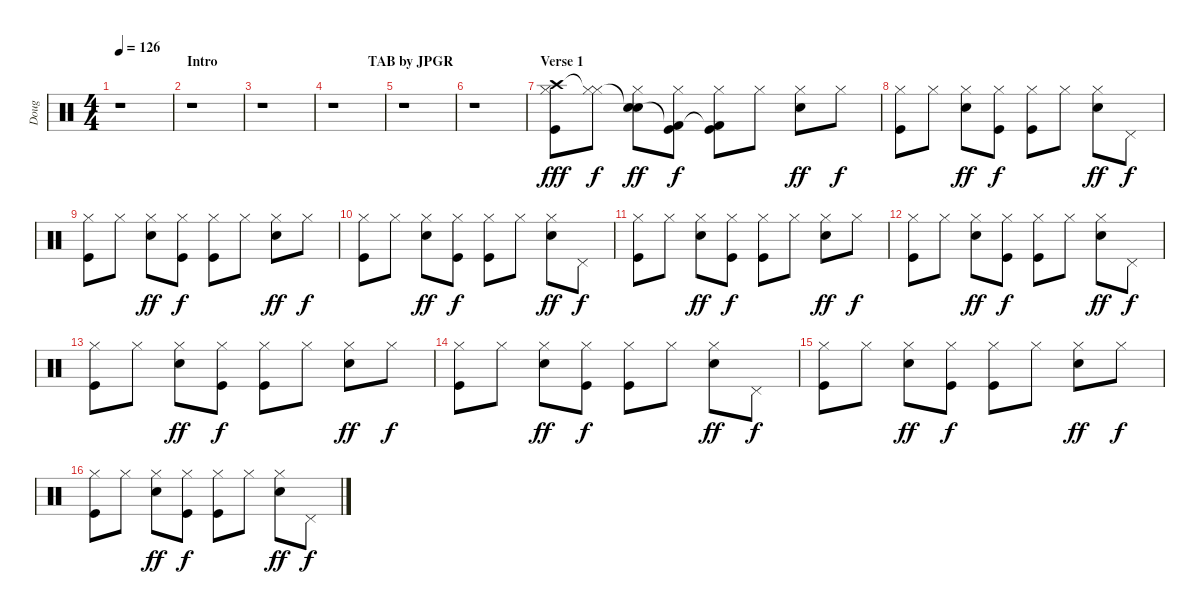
\track ("Doug" "Doug") {instrument percussion}
\staff {score}
\articulation defaults
\ts (4 4)
\tempo 126
\clef neutral
\ks c
r.1{dy fff} |
\section ("" "Intro                                           TAB by JPGR")
r.1 |
r.1 |
r.1 |
r.1 |
r.1 |
\section ("" "Verse 1")
("Crash high (hit)" "Hi-Hat (closed)" "Kick (hit)").8 ("Hi-Hat (closed)"{t} "Hi-Hat (closed)").8{dy f} ("Snare (hit) 2"{t} "Hi-Hat (closed)" "Snare (hit) 2").8{dy ff} ("Kick (hit) 2"{t} "Hi-Hat (closed)" "Kick (hit)").8{dy f} ("Kick (hit) 2"{t} "Hi-Hat (closed)" "Kick (hit)").8 "Hi-Hat (closed)".8 ("Hi-Hat (closed)" "Snare (hit) 2").8{dy ff} "Hi-Hat (closed)".8{dy f} |
("Hi-Hat (closed)" "Kick (hit)").8 "Hi-Hat (closed)".8 ("Hi-Hat (closed)" "Snare (hit) 2").8{dy ff} ("Hi-Hat (closed)" "Kick (hit)").8{dy f} ("Hi-Hat (closed)" "Kick (hit)").8 "Hi-Hat (closed)".8 ("Hi-Hat (closed)" "Snare (hit) 2").8{dy ff} "Pedal Hi-Hat (hit)".8{dy f} |
("Hi-Hat (closed)" "Kick (hit)").8 "Hi-Hat (closed)".8 ("Hi-Hat (closed)" "Snare (hit) 2").8{dy ff} ("Hi-Hat (closed)" "Kick (hit)").8{dy f} ("Hi-Hat (closed)" "Kick (hit)").8 "Hi-Hat (closed)".8 ("Hi-Hat (closed)" "Snare (hit) 2").8{dy ff} "Hi-Hat (closed)".8{dy f} |
("Hi-Hat (closed)" "Kick (hit)").8 "Hi-Hat (closed)".8 ("Hi-Hat (closed)" "Snare (hit) 2").8{dy ff} ("Hi-Hat (closed)" "Kick (hit)").8{dy f} ("Hi-Hat (closed)" "Kick (hit)").8 "Hi-Hat (closed)".8 ("Hi-Hat (closed)" "Snare (hit) 2").8{dy ff} "Pedal Hi-Hat (hit)".8{dy f} |
("Hi-Hat (closed)" "Kick (hit)").8 "Hi-Hat (closed)".8 ("Hi-Hat (closed)" "Snare (hit) 2").8{dy ff} ("Hi-Hat (closed)" "Kick (hit)").8{dy f} ("Hi-Hat (closed)" "Kick (hit)").8 "Hi-Hat (closed)".8 ("Hi-Hat (closed)" "Snare (hit) 2").8{dy ff} "Hi-Hat (closed)".8{dy f} |
("Hi-Hat (closed)" "Kick (hit)").8 "Hi-Hat (closed)".8 ("Hi-Hat (closed)" "Snare (hit) 2").8{dy ff} ("Hi-Hat (closed)" "Kick (hit)").8{dy f} ("Hi-Hat (closed)" "Kick (hit)").8 "Hi-Hat (closed)".8 ("Hi-Hat (closed)" "Snare (hit) 2").8{dy ff} "Pedal Hi-Hat (hit)".8{dy f} |
("Hi-Hat (closed)" "Kick (hit)").8 "Hi-Hat (closed)".8 ("Hi-Hat (closed)" "Snare (hit) 2").8{dy ff} ("Hi-Hat (closed)" "Kick (hit)").8{dy f} ("Hi-Hat (closed)" "Kick (hit)").8 "Hi-Hat (closed)".8 ("Hi-Hat (closed)" "Snare (hit) 2").8{dy ff} "Hi-Hat (closed)".8{dy f} |
("Hi-Hat (closed)" "Kick (hit)").8 "Hi-Hat (closed)".8 ("Hi-Hat (closed)" "Snare (hit) 2").8{dy ff} ("Hi-Hat (closed)" "Kick (hit)").8{dy f} ("Hi-Hat (closed)" "Kick (hit)").8 "Hi-Hat (closed)".8 ("Hi-Hat (closed)" "Snare (hit) 2").8{dy ff} "Pedal Hi-Hat (hit)".8{dy f} |
("Hi-Hat (closed)" "Kick (hit)").8 "Hi-Hat (closed)".8 ("Hi-Hat (closed)" "Snare (hit) 2").8{dy ff} ("Hi-Hat (closed)" "Kick (hit)").8{dy f} ("Hi-Hat (closed)" "Kick (hit)").8 "Hi-Hat (closed)".8 ("Hi-Hat (closed)" "Snare (hit) 2").8{dy ff} "Hi-Hat (closed)".8{dy f} |
("Hi-Hat (closed)" "Kick (hit)").8 "Hi-Hat (closed)".8 ("Hi-Hat (closed)" "Snare (hit) 2").8{dy ff} ("Hi-Hat (closed)" "Kick (hit)").8{dy f} ("Hi-Hat (closed)" "Kick (hit)").8 "Hi-Hat (closed)".8 ("Hi-Hat (closed)" "Snare (hit) 2").8{dy ff} "Pedal Hi-Hat (hit)".8{dy f}
